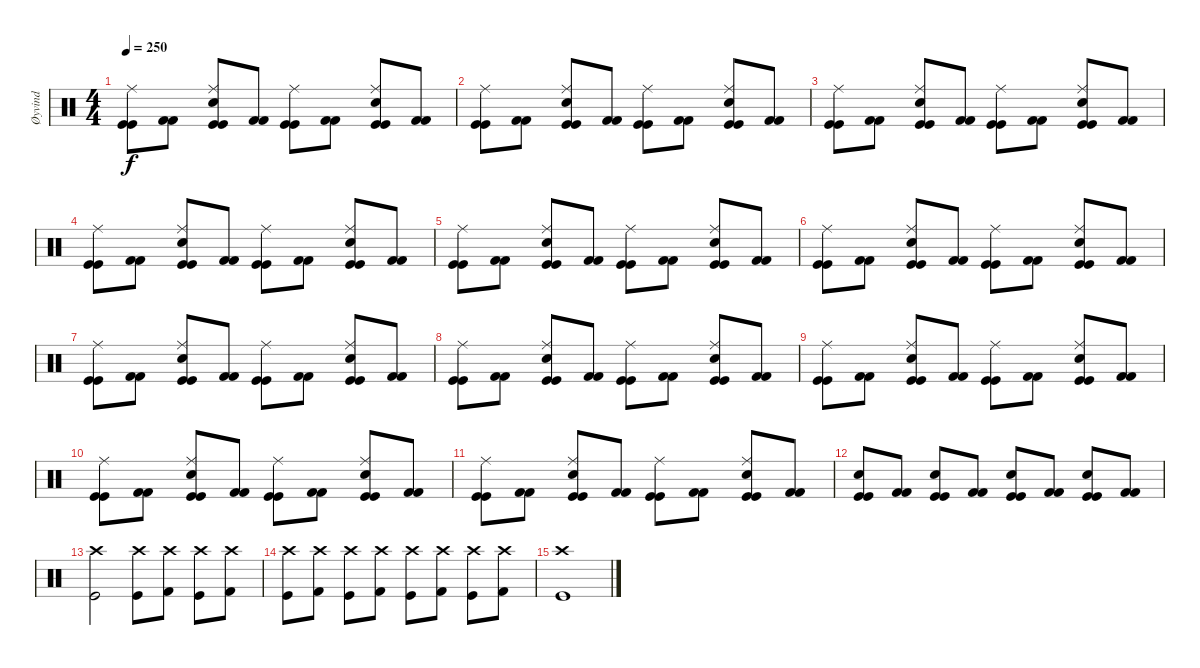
\track ("Øyvind" "Øyvind") {instrument percussion}
\staff {score}
\articulation defaults
\ts (4 4)
\tempo 250
\clef neutral
\ks c
("Kick (hit)" "Ride (middle)" "Kick (hit)").8{dy f} ("Kick (hit) 2" "Kick (hit) 2").8 ("Kick (hit)" "Snare (hit) 2" "Ride (middle)" "Kick (hit)").8 ("Kick (hit) 2" "Kick (hit) 2").8 ("Kick (hit)" "Ride (middle)" "Kick (hit)").8 ("Kick (hit) 2" "Kick (hit) 2").8 ("Kick (hit)" "Snare (hit) 2" "Ride (middle)" "Kick (hit)").8 ("Kick (hit) 2" "Kick (hit) 2").8 |
("Kick (hit)" "Ride (middle)" "Kick (hit)").8 ("Kick (hit) 2" "Kick (hit) 2").8 ("Kick (hit)" "Snare (hit) 2" "Ride (middle)" "Kick (hit)").8 ("Kick (hit) 2" "Kick (hit) 2").8 ("Kick (hit)" "Ride (middle)" "Kick (hit)").8 ("Kick (hit) 2" "Kick (hit) 2").8 ("Kick (hit)" "Snare (hit) 2" "Ride (middle)" "Kick (hit)").8 ("Kick (hit) 2" "Kick (hit) 2").8 |
("Kick (hit)" "Ride (middle)" "Kick (hit)").8 ("Kick (hit) 2" "Kick (hit) 2").8 ("Kick (hit)" "Snare (hit) 2" "Ride (middle)" "Kick (hit)").8 ("Kick (hit) 2" "Kick (hit) 2").8 ("Kick (hit)" "Ride (middle)" "Kick (hit)").8 ("Kick (hit) 2" "Kick (hit) 2").8 ("Kick (hit)" "Snare (hit) 2" "Ride (middle)" "Kick (hit)").8 ("Kick (hit) 2" "Kick (hit) 2").8 |
("Kick (hit)" "Ride (middle)" "Kick (hit)").8 ("Kick (hit) 2" "Kick (hit) 2").8 ("Kick (hit)" "Snare (hit) 2" "Ride (middle)" "Kick (hit)").8 ("Kick (hit) 2" "Kick (hit) 2").8 ("Kick (hit)" "Ride (middle)" "Kick (hit)").8 ("Kick (hit) 2" "Kick (hit) 2").8 ("Kick (hit)" "Snare (hit) 2" "Ride (middle)" "Kick (hit)").8 ("Kick (hit) 2" "Kick (hit) 2").8 |
("Kick (hit)" "Ride (middle)" "Kick (hit)").8 ("Kick (hit) 2" "Kick (hit) 2").8 ("Kick (hit)" "Snare (hit) 2" "Ride (middle)" "Kick (hit)").8 ("Kick (hit) 2" "Kick (hit) 2").8 ("Kick (hit)" "Ride (middle)" "Kick (hit)").8 ("Kick (hit) 2" "Kick (hit) 2").8 ("Kick (hit)" "Snare (hit) 2" "Ride (middle)" "Kick (hit)").8 ("Kick (hit) 2" "Kick (hit) 2").8 |
("Kick (hit)" "Ride (middle)" "Kick (hit)").8 ("Kick (hit) 2" "Kick (hit) 2").8 ("Kick (hit)" "Snare (hit) 2" "Ride (middle)" "Kick (hit)").8 ("Kick (hit) 2" "Kick (hit) 2").8 ("Kick (hit)" "Ride (middle)" "Kick (hit)").8 ("Kick (hit) 2" "Kick (hit) 2").8 ("Kick (hit)" "Snare (hit) 2" "Ride (middle)" "Kick (hit)").8 ("Kick (hit) 2" "Kick (hit) 2").8 |
("Kick (hit)" "Ride (middle)" "Kick (hit)").8 ("Kick (hit) 2" "Kick (hit) 2").8 ("Kick (hit)" "Snare (hit) 2" "Ride (middle)" "Kick (hit)").8 ("Kick (hit) 2" "Kick (hit) 2").8 ("Kick (hit)" "Ride (middle)" "Kick (hit)").8 ("Kick (hit) 2" "Kick (hit) 2").8 ("Kick (hit)" "Snare (hit) 2" "Ride (middle)" "Kick (hit)").8 ("Kick (hit) 2" "Kick (hit) 2").8 |
("Kick (hit)" "Ride (middle)" "Kick (hit)").8 ("Kick (hit) 2" "Kick (hit) 2").8 ("Kick (hit)" "Snare (hit) 2" "Ride (middle)" "Kick (hit)").8 ("Kick (hit) 2" "Kick (hit) 2").8 ("Kick (hit)" "Ride (middle)" "Kick (hit)").8 ("Kick (hit) 2" "Kick (hit) 2").8 ("Kick (hit)" "Snare (hit) 2" "Ride (middle)" "Kick (hit)").8 ("Kick (hit) 2" "Kick (hit) 2").8 |
("Kick (hit)" "Ride (middle)" "Kick (hit)").8 ("Kick (hit) 2" "Kick (hit) 2").8 ("Kick (hit)" "Snare (hit) 2" "Ride (middle)" "Kick (hit)").8 ("Kick (hit) 2" "Kick (hit) 2").8 ("Kick (hit)" "Ride (middle)" "Kick (hit)").8 ("Kick (hit) 2" "Kick (hit) 2").8 ("Kick (hit)" "Snare (hit) 2" "Ride (middle)" "Kick (hit)").8 ("Kick (hit) 2" "Kick (hit) 2").8 |
("Kick (hit)" "Ride (middle)" "Kick (hit)").8 ("Kick (hit) 2" "Kick (hit) 2").8 ("Kick (hit)" "Snare (hit) 2" "Ride (middle)" "Kick (hit)").8 ("Kick (hit) 2" "Kick (hit) 2").8 ("Kick (hit)" "Ride (middle)" "Kick (hit)").8 ("Kick (hit) 2" "Kick (hit) 2").8 ("Kick (hit)" "Snare (hit) 2" "Ride (middle)" "Kick (hit)").8 ("Kick (hit) 2" "Kick (hit) 2").8 |
("Kick (hit)" "Ride (middle)" "Kick (hit)").8 ("Kick (hit) 2" "Kick (hit) 2").8 ("Kick (hit)" "Snare (hit) 2" "Ride (middle)" "Kick (hit)").8 ("Kick (hit) 2" "Kick (hit) 2").8 ("Kick (hit)" "Ride (middle)" "Kick (hit)").8 ("Kick (hit) 2" "Kick (hit) 2").8 ("Kick (hit)" "Snare (hit) 2" "Ride (middle)" "Kick (hit)").8 ("Kick (hit) 2" "Kick (hit) 2").8 |
("Kick (hit)" "Snare (hit) 2" "Kick (hit)").8 ("Kick (hit) 2" "Kick (hit) 2").8 ("Kick (hit)" "Snare (hit) 2" "Kick (hit)").8 ("Kick (hit) 2" "Kick (hit) 2").8 ("Kick (hit)" "Snare (hit) 2" "Kick (hit)").8 ("Kick (hit) 2" "Kick (hit) 2").8 ("Kick (hit)" "Snare (hit) 2" "Kick (hit)").8 ("Kick (hit) 2" "Kick (hit) 2").8 |
("Crash high (hit)" "Kick (hit)").2 ("Crash high (hit)" "Kick (hit)").8 ("Crash high (hit)" "Kick (hit) 2").8 ("Crash high (hit)" "Kick (hit)").8 ("Crash high (hit)" "Kick (hit) 2").8 |
("Crash high (hit)" "Kick (hit)").8 ("Crash high (hit)" "Kick (hit) 2").8 ("Crash high (hit)" "Kick (hit)").8 ("Crash high (hit)" "Kick (hit) 2").8 ("Crash high (hit)" "Kick (hit)").8 ("Crash high (hit)" "Kick (hit) 2").8 ("Crash high (hit)" "Kick (hit)").8 ("Crash high (hit)" "Kick (hit) 2").8 |
("Crash high (hit)" "Kick (hit)").1
